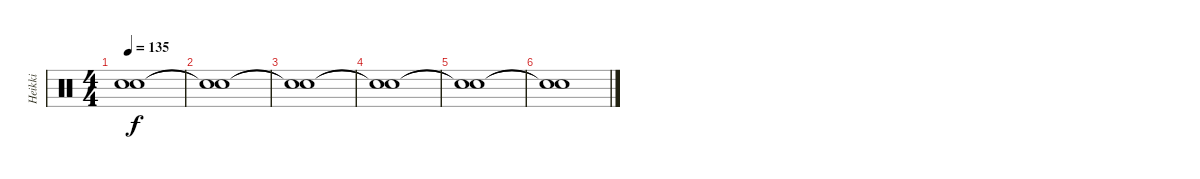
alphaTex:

\track ("Heikki" "Heikki") {instrument percussion}
\staff {score}
\articulation defaults
\ts (4 4)
\tempo 135
\clef neutral
\ks c
("Snare (hit)"{t} "Snare (hit)"{t}).1{dy f} |
("Snare (hit)"{t} "Snare (hit)"{t}).1 |
("Snare (hit)"{t} "Snare (hit)"{t}).1 |
("Snare (hit)"{t} "Snare (hit)"{t}).1 |
("Snare (hit)"{t} "Snare (hit)"{t}).1 |
("Snare (hit)"{t} "Snare (hit)"{t}).1
